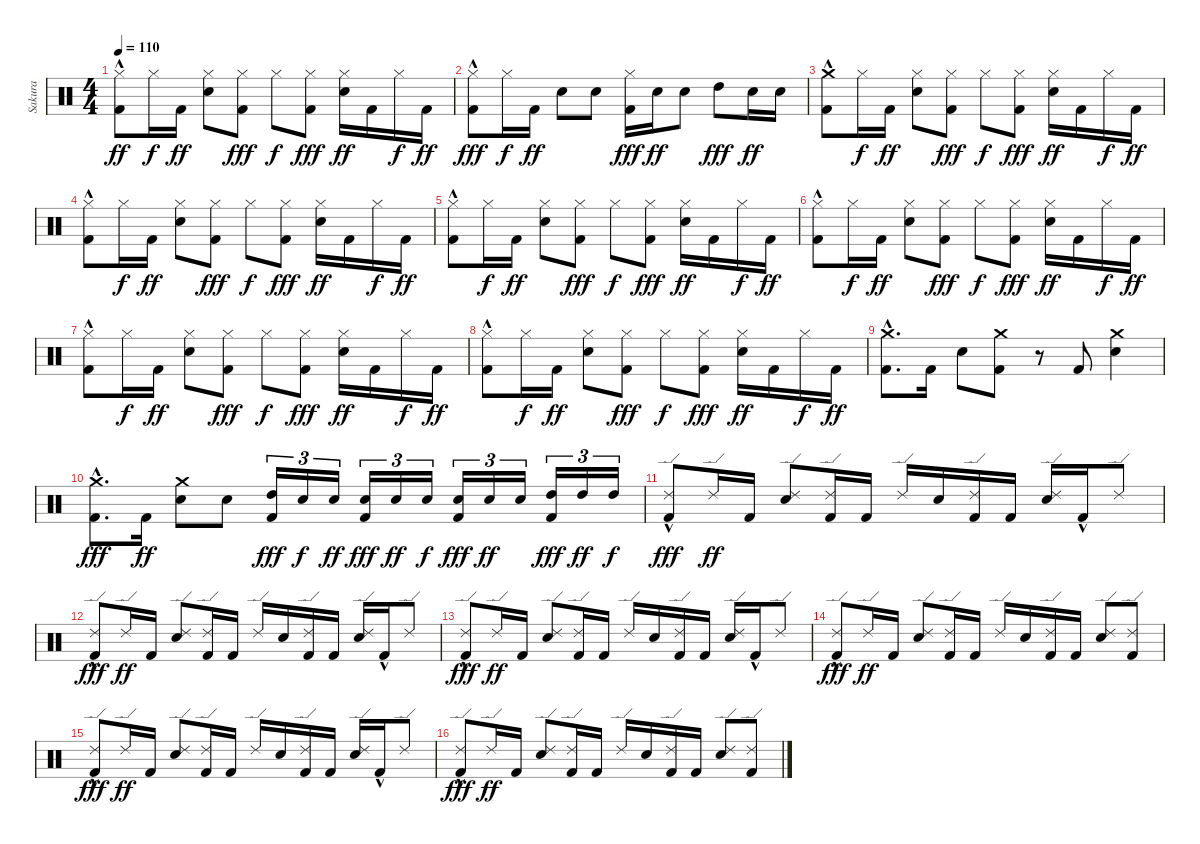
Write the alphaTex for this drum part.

\track ("Sakura" "Sakura") {instrument percussion}
\staff {score}
\articulation defaults
\ts (4 4)
\tempo 110
\clef neutral
\ks c
("Kick (hit) 2"{hac} "Hi-Hat (closed)").8{dy ff} "Hi-Hat (closed)".16{dy f} "Kick (hit) 2".16{dy ff} ("Snare (hit) 2" "Hi-Hat (closed)").8 ("Kick (hit) 2" "Hi-Hat (closed)").8{dy fff} "Hi-Hat (closed)".8{dy f} ("Kick (hit) 2" "Hi-Hat (closed)").8{dy fff} ("Snare (hit) 2" "Hi-Hat (closed)").16{dy ff} "Kick (hit) 2".16 "Hi-Hat (closed)".16{dy f} "Kick (hit) 2".16{dy ff} |
("Kick (hit) 2"{hac} "Hi-Hat (closed)").8{dy fff} "Hi-Hat (closed)".16{dy f} "Kick (hit) 2".16{dy ff} "Snare (hit) 2".8 "Snare (hit) 2".8 ("Kick (hit) 2" "Hi-Hat (closed)").16{dy fff} "Snare (hit) 2".16{dy ff} "Snare (hit) 2".8 "High Tom (hit)".8{dy fff} "Snare (hit) 2".16{dy ff} "Snare (hit) 2".16 |
("Kick (hit) 2"{hac} "Crash medium (hit)").8 "Hi-Hat (closed)".16{dy f} "Kick (hit) 2".16{dy ff} ("Snare (hit) 2" "Hi-Hat (closed)").8 ("Kick (hit) 2" "Hi-Hat (closed)").8{dy fff} "Hi-Hat (closed)".8{dy f} ("Kick (hit) 2" "Hi-Hat (closed)").8{dy fff} ("Snare (hit) 2" "Hi-Hat (closed)").16{dy ff} "Kick (hit) 2".16 "Hi-Hat (closed)".16{dy f} "Kick (hit) 2".16{dy ff} |
("Kick (hit) 2"{hac} "Hi-Hat (closed)").8 "Hi-Hat (closed)".16{dy f} "Kick (hit) 2".16{dy ff} ("Snare (hit) 2" "Hi-Hat (closed)").8 ("Kick (hit) 2" "Hi-Hat (closed)").8{dy fff} "Hi-Hat (closed)".8{dy f} ("Kick (hit) 2" "Hi-Hat (closed)").8{dy fff} ("Snare (hit) 2" "Hi-Hat (closed)").16{dy ff} "Kick (hit) 2".16 "Hi-Hat (closed)".16{dy f} "Kick (hit) 2".16{dy ff} |
("Kick (hit) 2"{hac} "Hi-Hat (closed)").8 "Hi-Hat (closed)".16{dy f} "Kick (hit) 2".16{dy ff} ("Snare (hit) 2" "Hi-Hat (closed)").8 ("Kick (hit) 2" "Hi-Hat (closed)").8{dy fff} "Hi-Hat (closed)".8{dy f} ("Kick (hit) 2" "Hi-Hat (closed)").8{dy fff} ("Snare (hit) 2" "Hi-Hat (closed)").16{dy ff} "Kick (hit) 2".16 "Hi-Hat (closed)".16{dy f} "Kick (hit) 2".16{dy ff} |
("Kick (hit) 2"{hac} "Hi-Hat (closed)").8 "Hi-Hat (closed)".16{dy f} "Kick (hit) 2".16{dy ff} ("Snare (hit) 2" "Hi-Hat (closed)").8 ("Kick (hit) 2" "Hi-Hat (closed)").8{dy fff} "Hi-Hat (closed)".8{dy f} ("Kick (hit) 2" "Hi-Hat (closed)").8{dy fff} ("Snare (hit) 2" "Hi-Hat (closed)").16{dy ff} "Kick (hit) 2".16 "Hi-Hat (closed)".16{dy f} "Kick (hit) 2".16{dy ff} |
("Kick (hit) 2"{hac} "Hi-Hat (closed)").8 "Hi-Hat (closed)".16{dy f} "Kick (hit) 2".16{dy ff} ("Snare (hit) 2" "Hi-Hat (closed)").8 ("Kick (hit) 2" "Hi-Hat (closed)").8{dy fff} "Hi-Hat (closed)".8{dy f} ("Kick (hit) 2" "Hi-Hat (closed)").8{dy fff} ("Snare (hit) 2" "Hi-Hat (closed)").16{dy ff} "Kick (hit) 2".16 "Hi-Hat (closed)".16{dy f} "Kick (hit) 2".16{dy ff} |
("Kick (hit) 2"{hac} "Hi-Hat (closed)").8 "Hi-Hat (closed)".16{dy f} "Kick (hit) 2".16{dy ff} ("Snare (hit) 2" "Hi-Hat (closed)").8 ("Kick (hit) 2" "Hi-Hat (closed)").8{dy fff} "Hi-Hat (closed)".8{dy f} ("Kick (hit) 2" "Hi-Hat (closed)").8{dy fff} ("Snare (hit) 2" "Hi-Hat (closed)").16{dy ff} "Kick (hit) 2".16 "Hi-Hat (closed)".16{dy f} "Kick (hit) 2".16{dy ff} |
("Kick (hit) 2"{hac} "Crash medium (hit)").8{d} "Kick (hit) 2".16 "Snare (hit) 2".8 ("Kick (hit) 2" "Crash medium (hit)").8 r.8 "Kick (hit) 2".8 ("Crash medium (hit)" "Snare (hit) 2").4 |
("Kick (hit) 2"{hac} "Crash medium (hit)").8{d dy fff} "Kick (hit) 2".16{dy ff} ("Snare (hit) 2" "Crash medium (hit)").8 "Snare (hit) 2".8 ("Kick (hit) 2" "High Tom (hit)").16{tu (3 2) dy fff} "Snare (hit) 2".16{tu (3 2) dy f} "Snare (hit) 2".16{tu (3 2) dy ff} ("Kick (hit) 2" "Snare (hit) 2").16{tu (3 2) dy fff} "Snare (hit) 2".16{tu (3 2) dy ff} "Snare (hit) 2".16{tu (3 2) dy f} ("Kick (hit) 2" "Snare (hit) 2").16{tu (3 2) dy fff} "Snare (hit) 2".16{tu (3 2) dy ff} "Snare (hit) 2".16{tu (3 2)} ("Kick (hit) 2" "High Tom (hit)").16{tu (3 2) dy fff volume 15 balance 8} "High Tom (hit)".16{tu (3 2) dy ff volume 15 balance 8} "High Tom (hit)".16{tu (3 2) dy f} |
("Kick (hit) 2"{hac} "Ride (edge) 2").8{dy fff} "Ride (edge) 2".16{dy ff} "Kick (hit) 2".16 ("Ride (edge) 2" "Snare (hit) 2").8 ("Ride (edge) 2" "Kick (hit) 2").16 "Kick (hit) 2".16 "Ride (edge) 2".16 "Snare (hit) 2".16 ("Ride (edge) 2" "Kick (hit) 2").16 "Kick (hit) 2".16 ("Snare (hit) 2" "Ride (edge) 2").16 "Kick (hit) 2"{hac}.16 "Ride (edge) 2".8 |
("Kick (hit) 2"{hac} "Ride (edge) 2").8{dy fff} "Ride (edge) 2".16{dy ff} "Kick (hit) 2".16 ("Ride (edge) 2" "Snare (hit) 2").8 ("Ride (edge) 2" "Kick (hit) 2").16 "Kick (hit) 2".16 "Ride (edge) 2".16 "Snare (hit) 2".16 ("Ride (edge) 2" "Kick (hit) 2").16 "Kick (hit) 2".16 ("Snare (hit) 2" "Ride (edge) 2").16 "Kick (hit) 2"{hac}.16 "Ride (edge) 2".8 |
("Kick (hit) 2"{hac} "Ride (edge) 2").8{dy fff} "Ride (edge) 2".16{dy ff} "Kick (hit) 2".16 ("Ride (edge) 2" "Snare (hit) 2").8 ("Ride (edge) 2" "Kick (hit) 2").16 "Kick (hit) 2".16 "Ride (edge) 2".16 "Snare (hit) 2".16 ("Ride (edge) 2" "Kick (hit) 2").16 "Kick (hit) 2".16 ("Snare (hit) 2" "Ride (edge) 2").16 "Kick (hit) 2"{hac}.16 "Ride (edge) 2".8 |
("Kick (hit) 2"{hac} "Ride (edge) 2").8{dy fff} "Ride (edge) 2".16{dy ff} "Kick (hit) 2".16 ("Ride (edge) 2" "Snare (hit) 2").8 ("Ride (edge) 2" "Kick (hit) 2").16 "Kick (hit) 2".16 "Ride (edge) 2".16 "Snare (hit) 2".16 ("Ride (edge) 2" "Kick (hit) 2").16 "Kick (hit) 2".16 ("Snare (hit) 2" "Ride (edge) 2").8 ("Kick (hit) 2" "Ride (edge) 2").8 |
("Kick (hit) 2"{hac} "Ride (edge) 2").8{dy fff} "Ride (edge) 2".16{dy ff} "Kick (hit) 2".16 ("Ride (edge) 2" "Snare (hit) 2").8 ("Ride (edge) 2" "Kick (hit) 2").16 "Kick (hit) 2".16 "Ride (edge) 2".16 "Snare (hit) 2".16 ("Ride (edge) 2" "Kick (hit) 2").16 "Kick (hit) 2".16 ("Snare (hit) 2" "Ride (edge) 2").16 "Kick (hit) 2"{hac}.16 "Ride (edge) 2".8 |
("Kick (hit) 2"{hac} "Ride (edge) 2").8{dy fff} "Ride (edge) 2".16{dy ff} "Kick (hit) 2".16 ("Ride (edge) 2" "Snare (hit) 2").8 ("Ride (edge) 2" "Kick (hit) 2").16 "Kick (hit) 2".16 "Ride (edge) 2".16 "Snare (hit) 2".16 ("Ride (edge) 2" "Kick (hit) 2").16 "Kick (hit) 2".16 ("Snare (hit) 2" "Ride (edge) 2").8 ("Kick (hit) 2" "Ride (edge) 2").8
